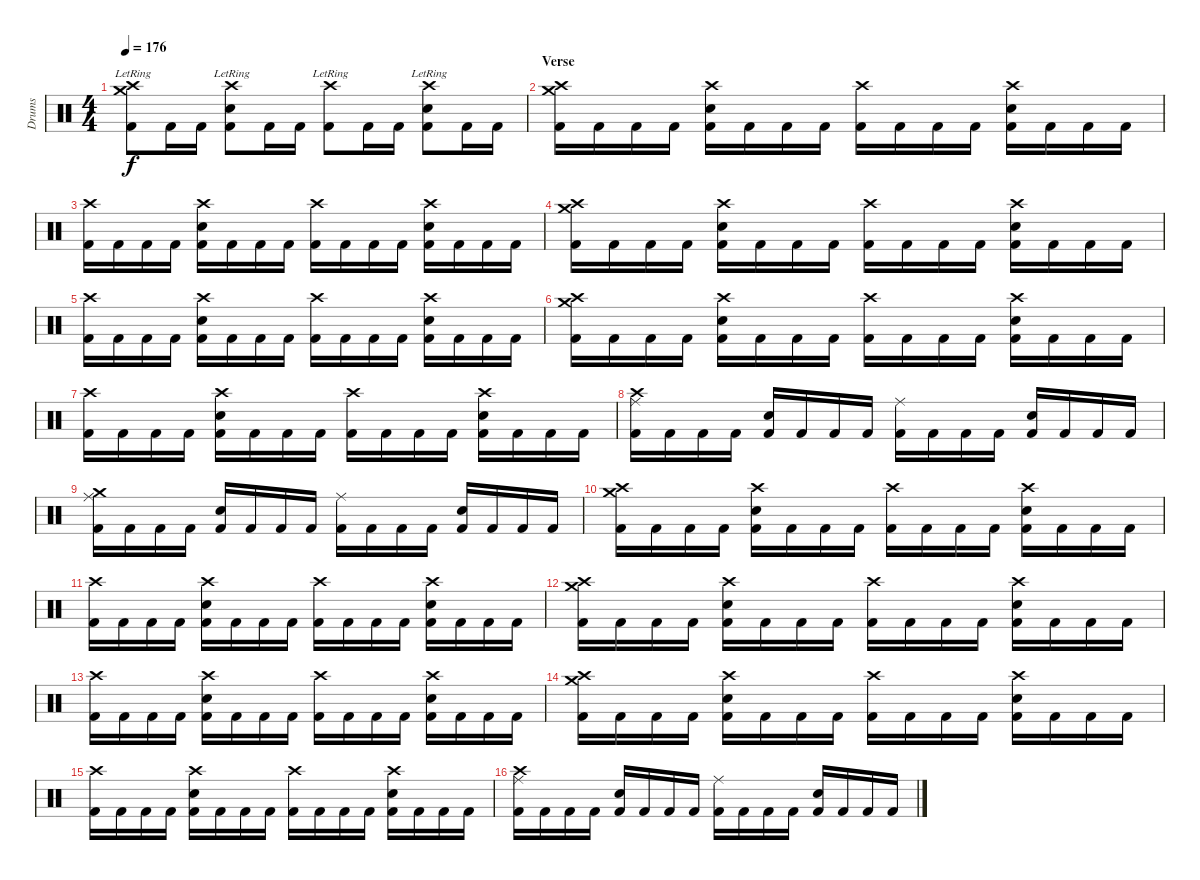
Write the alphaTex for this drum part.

\track ("Drums" "Drums") {instrument percussion}
\staff {score}
\articulation defaults
\ts (4 4)
\tempo 176
\clef neutral
\ks c
("Crash high (hit)"{lr} "Crash medium (hit)" "Kick (hit) 2").8{dy f} "Kick (hit) 2".16 "Kick (hit) 2".16 ("Crash high (hit)"{lr} "Snare (hit) 2" "Kick (hit) 2").8 "Kick (hit) 2".16 "Kick (hit) 2".16 ("Crash high (hit)"{lr} "Kick (hit) 2").8 "Kick (hit) 2".16 "Kick (hit) 2".16 ("Crash high (hit)"{lr} "Snare (hit) 2" "Kick (hit) 2").8 "Kick (hit) 2".16 "Kick (hit) 2".16 |
\section ("" "Verse")
("Crash medium (hit)" "Crash high (hit)" "Kick (hit) 2").16 "Kick (hit) 2".16 "Kick (hit) 2".16 "Kick (hit) 2".16 ("Crash high (hit)" "Snare (hit) 2" "Kick (hit) 2").16 "Kick (hit) 2".16 "Kick (hit) 2".16 "Kick (hit) 2".16 ("Crash high (hit)" "Kick (hit) 2").16 "Kick (hit) 2".16 "Kick (hit) 2".16 "Kick (hit) 2".16 ("Crash high (hit)" "Snare (hit) 2" "Kick (hit) 2").16 "Kick (hit) 2".16 "Kick (hit) 2".16 "Kick (hit) 2".16 |
("Crash high (hit)" "Kick (hit) 2").16 "Kick (hit) 2".16 "Kick (hit) 2".16 "Kick (hit) 2".16 ("Crash high (hit)" "Snare (hit) 2" "Kick (hit) 2").16 "Kick (hit) 2".16 "Kick (hit) 2".16 "Kick (hit) 2".16 ("Crash high (hit)" "Kick (hit) 2").16 "Kick (hit) 2".16 "Kick (hit) 2".16 "Kick (hit) 2".16 ("Crash high (hit)" "Snare (hit) 2" "Kick (hit) 2").16 "Kick (hit) 2".16 "Kick (hit) 2".16 "Kick (hit) 2".16 |
("Crash medium (hit)" "Crash high (hit)" "Kick (hit) 2").16 "Kick (hit) 2".16 "Kick (hit) 2".16 "Kick (hit) 2".16 ("Crash high (hit)" "Snare (hit) 2" "Kick (hit) 2").16 "Kick (hit) 2".16 "Kick (hit) 2".16 "Kick (hit) 2".16 ("Crash high (hit)" "Kick (hit) 2").16 "Kick (hit) 2".16 "Kick (hit) 2".16 "Kick (hit) 2".16 ("Crash high (hit)" "Snare (hit) 2" "Kick (hit) 2").16 "Kick (hit) 2".16 "Kick (hit) 2".16 "Kick (hit) 2".16 |
("Crash high (hit)" "Kick (hit) 2").16 "Kick (hit) 2".16 "Kick (hit) 2".16 "Kick (hit) 2".16 ("Crash high (hit)" "Snare (hit) 2" "Kick (hit) 2").16 "Kick (hit) 2".16 "Kick (hit) 2".16 "Kick (hit) 2".16 ("Crash high (hit)" "Kick (hit) 2").16 "Kick (hit) 2".16 "Kick (hit) 2".16 "Kick (hit) 2".16 ("Crash high (hit)" "Snare (hit) 2" "Kick (hit) 2").16 "Kick (hit) 2".16 "Kick (hit) 2".16 "Kick (hit) 2".16 |
("Crash medium (hit)" "Crash high (hit)" "Kick (hit) 2").16 "Kick (hit) 2".16 "Kick (hit) 2".16 "Kick (hit) 2".16 ("Crash high (hit)" "Snare (hit) 2" "Kick (hit) 2").16 "Kick (hit) 2".16 "Kick (hit) 2".16 "Kick (hit) 2".16 ("Crash high (hit)" "Kick (hit) 2").16 "Kick (hit) 2".16 "Kick (hit) 2".16 "Kick (hit) 2".16 ("Crash high (hit)" "Snare (hit) 2" "Kick (hit) 2").16 "Kick (hit) 2".16 "Kick (hit) 2".16 "Kick (hit) 2".16 |
("Crash high (hit)" "Kick (hit) 2").16 "Kick (hit) 2".16 "Kick (hit) 2".16 "Kick (hit) 2".16 ("Crash high (hit)" "Snare (hit) 2" "Kick (hit) 2").16 "Kick (hit) 2".16 "Kick (hit) 2".16 "Kick (hit) 2".16 ("Crash high (hit)" "Kick (hit) 2").16 "Kick (hit) 2".16 "Kick (hit) 2".16 "Kick (hit) 2".16 ("Crash high (hit)" "Snare (hit) 2" "Kick (hit) 2").16 "Kick (hit) 2".16 "Kick (hit) 2".16 "Kick (hit) 2".16 |
("Ride (middle)" "Crash high (hit)" "Kick (hit) 2").16 "Kick (hit) 2".16 "Kick (hit) 2".16 "Kick (hit) 2".16 ("Snare (hit) 2" "Kick (hit) 2").16 "Kick (hit) 2".16 "Kick (hit) 2".16 "Kick (hit) 2".16 ("Ride (middle)" "Kick (hit) 2").16 "Kick (hit) 2".16 "Kick (hit) 2".16 "Kick (hit) 2".16 ("Snare (hit) 2" "Kick (hit) 2").16 "Kick (hit) 2".16 "Kick (hit) 2".16 "Kick (hit) 2".16 |
("Ride (middle)" "Crash medium (hit)" "Kick (hit) 2").16 "Kick (hit) 2".16 "Kick (hit) 2".16 "Kick (hit) 2".16 ("Snare (hit) 2" "Kick (hit) 2").16 "Kick (hit) 2".16 "Kick (hit) 2".16 "Kick (hit) 2".16 ("Ride (middle)" "Kick (hit) 2").16 "Kick (hit) 2".16 "Kick (hit) 2".16 "Kick (hit) 2".16 ("Snare (hit) 2" "Kick (hit) 2").16 "Kick (hit) 2".16 "Kick (hit) 2".16 "Kick (hit) 2".16 |
("Crash medium (hit)" "Crash high (hit)" "Kick (hit) 2").16 "Kick (hit) 2".16 "Kick (hit) 2".16 "Kick (hit) 2".16 ("Crash high (hit)" "Snare (hit) 2" "Kick (hit) 2").16 "Kick (hit) 2".16 "Kick (hit) 2".16 "Kick (hit) 2".16 ("Crash high (hit)" "Kick (hit) 2").16 "Kick (hit) 2".16 "Kick (hit) 2".16 "Kick (hit) 2".16 ("Crash high (hit)" "Snare (hit) 2" "Kick (hit) 2").16 "Kick (hit) 2".16 "Kick (hit) 2".16 "Kick (hit) 2".16 |
("Crash high (hit)" "Kick (hit) 2").16 "Kick (hit) 2".16 "Kick (hit) 2".16 "Kick (hit) 2".16 ("Crash high (hit)" "Snare (hit) 2" "Kick (hit) 2").16 "Kick (hit) 2".16 "Kick (hit) 2".16 "Kick (hit) 2".16 ("Crash high (hit)" "Kick (hit) 2").16 "Kick (hit) 2".16 "Kick (hit) 2".16 "Kick (hit) 2".16 ("Crash high (hit)" "Snare (hit) 2" "Kick (hit) 2").16 "Kick (hit) 2".16 "Kick (hit) 2".16 "Kick (hit) 2".16 |
("Crash medium (hit)" "Crash high (hit)" "Kick (hit) 2").16 "Kick (hit) 2".16 "Kick (hit) 2".16 "Kick (hit) 2".16 ("Crash high (hit)" "Snare (hit) 2" "Kick (hit) 2").16 "Kick (hit) 2".16 "Kick (hit) 2".16 "Kick (hit) 2".16 ("Crash high (hit)" "Kick (hit) 2").16 "Kick (hit) 2".16 "Kick (hit) 2".16 "Kick (hit) 2".16 ("Crash high (hit)" "Snare (hit) 2" "Kick (hit) 2").16 "Kick (hit) 2".16 "Kick (hit) 2".16 "Kick (hit) 2".16 |
("Crash high (hit)" "Kick (hit) 2").16 "Kick (hit) 2".16 "Kick (hit) 2".16 "Kick (hit) 2".16 ("Crash high (hit)" "Snare (hit) 2" "Kick (hit) 2").16 "Kick (hit) 2".16 "Kick (hit) 2".16 "Kick (hit) 2".16 ("Crash high (hit)" "Kick (hit) 2").16 "Kick (hit) 2".16 "Kick (hit) 2".16 "Kick (hit) 2".16 ("Crash high (hit)" "Snare (hit) 2" "Kick (hit) 2").16 "Kick (hit) 2".16 "Kick (hit) 2".16 "Kick (hit) 2".16 |
("Crash medium (hit)" "Crash high (hit)" "Kick (hit) 2").16 "Kick (hit) 2".16 "Kick (hit) 2".16 "Kick (hit) 2".16 ("Crash high (hit)" "Snare (hit) 2" "Kick (hit) 2").16 "Kick (hit) 2".16 "Kick (hit) 2".16 "Kick (hit) 2".16 ("Crash high (hit)" "Kick (hit) 2").16 "Kick (hit) 2".16 "Kick (hit) 2".16 "Kick (hit) 2".16 ("Crash high (hit)" "Snare (hit) 2" "Kick (hit) 2").16 "Kick (hit) 2".16 "Kick (hit) 2".16 "Kick (hit) 2".16 |
("Crash high (hit)" "Kick (hit) 2").16 "Kick (hit) 2".16 "Kick (hit) 2".16 "Kick (hit) 2".16 ("Crash high (hit)" "Snare (hit) 2" "Kick (hit) 2").16 "Kick (hit) 2".16 "Kick (hit) 2".16 "Kick (hit) 2".16 ("Crash high (hit)" "Kick (hit) 2").16 "Kick (hit) 2".16 "Kick (hit) 2".16 "Kick (hit) 2".16 ("Crash high (hit)" "Snare (hit) 2" "Kick (hit) 2").16 "Kick (hit) 2".16 "Kick (hit) 2".16 "Kick (hit) 2".16 |
("Ride (middle)" "Crash high (hit)" "Kick (hit) 2").16 "Kick (hit) 2".16 "Kick (hit) 2".16 "Kick (hit) 2".16 ("Snare (hit) 2" "Kick (hit) 2").16 "Kick (hit) 2".16 "Kick (hit) 2".16 "Kick (hit) 2".16 ("Ride (middle)" "Kick (hit) 2").16 "Kick (hit) 2".16 "Kick (hit) 2".16 "Kick (hit) 2".16 ("Snare (hit) 2" "Kick (hit) 2").16 "Kick (hit) 2".16 "Kick (hit) 2".16 "Kick (hit) 2".16
